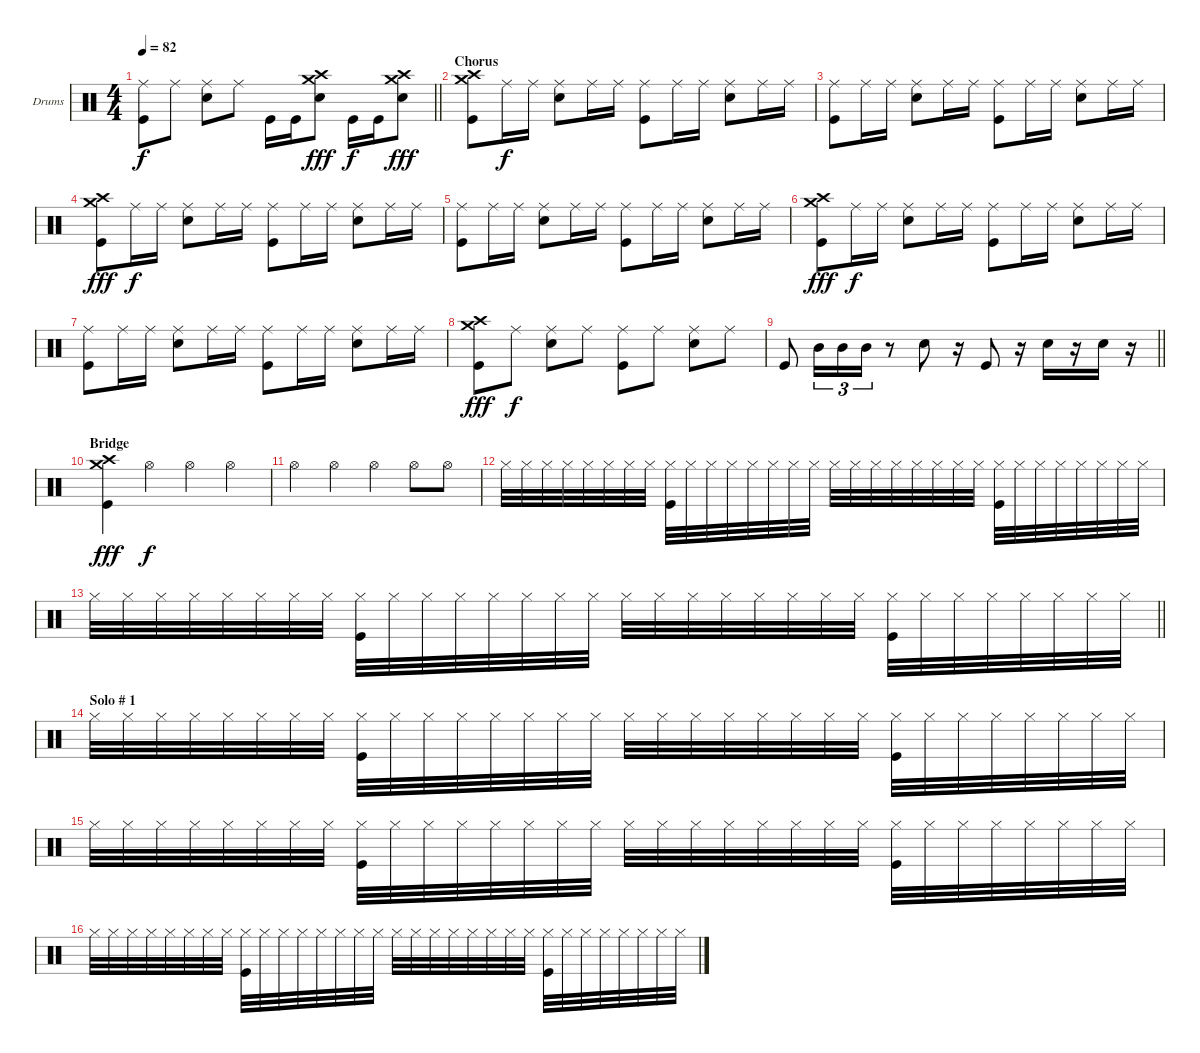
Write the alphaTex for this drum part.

\bracketExtendMode groupsimilarinstruments
\firstSystemTrackNameOrientation horizontal
\otherSystemsTrackNameOrientation horizontal
\track ("Drumkit" "Drums") {instrument percussion}
\staff {score}
\articulation defaults
\ts (4 4)
\tempo 82
\clef neutral
\barLineRight lightlight
\ks c
("Kick (hit)" "Ride (middle)").8{dy f} "Ride (middle)".8 ("Snare (hit) 2" "Ride (middle)").8 "Ride (middle)".8 "Kick (hit)".16 "Kick (hit)".16 ("Snare (hit) 2" "Crash medium (hit)" "Crash high (hit)").8{dy fff} "Kick (hit)".16{dy f} "Kick (hit)".16 ("Snare (hit) 2" "Crash medium (hit)" "Crash high (hit)").8{dy fff} |
\section ("" "Chorus")
("Kick (hit)" "Crash medium (hit)" "Crash high (hit)").8 "Ride (middle)".16{dy f} "Ride (middle)".16 ("Snare (hit) 2" "Ride (middle)").8 "Ride (middle)".16 "Ride (middle)".16 ("Kick (hit)" "Ride (middle)").8 "Ride (middle)".16 "Ride (middle)".16 ("Snare (hit) 2" "Ride (middle)").8 "Ride (middle)".16 "Ride (middle)".16 |
("Kick (hit)" "Ride (middle)").8 "Ride (middle)".16 "Ride (middle)".16 ("Snare (hit) 2" "Ride (middle)").8 "Ride (middle)".16 "Ride (middle)".16 ("Kick (hit)" "Ride (middle)").8 "Ride (middle)".16 "Ride (middle)".16 ("Snare (hit) 2" "Ride (middle)").8 "Ride (middle)".16 "Ride (middle)".16 |
("Kick (hit)" "Crash medium (hit)" "Crash high (hit)").8{dy fff} "Ride (middle)".16{dy f} "Ride (middle)".16 ("Snare (hit) 2" "Ride (middle)").8 "Ride (middle)".16 "Ride (middle)".16 ("Kick (hit)" "Ride (middle)").8 "Ride (middle)".16 "Ride (middle)".16 ("Snare (hit) 2" "Ride (middle)").8 "Ride (middle)".16 "Ride (middle)".16 |
("Kick (hit)" "Ride (middle)").8 "Ride (middle)".16 "Ride (middle)".16 ("Snare (hit) 2" "Ride (middle)").8 "Ride (middle)".16 "Ride (middle)".16 ("Kick (hit)" "Ride (middle)").8 "Ride (middle)".16 "Ride (middle)".16 ("Snare (hit) 2" "Ride (middle)").8 "Ride (middle)".16 "Ride (middle)".16 |
("Kick (hit)" "Crash medium (hit)" "Crash high (hit)").8{dy fff} "Ride (middle)".16{dy f} "Ride (middle)".16 ("Snare (hit) 2" "Ride (middle)").8 "Ride (middle)".16 "Ride (middle)".16 ("Kick (hit)" "Ride (middle)").8 "Ride (middle)".16 "Ride (middle)".16 ("Snare (hit) 2" "Ride (middle)").8 "Ride (middle)".16 "Ride (middle)".16 |
("Kick (hit)" "Ride (middle)").8 "Ride (middle)".16 "Ride (middle)".16 ("Snare (hit) 2" "Ride (middle)").8 "Ride (middle)".16 "Ride (middle)".16 ("Kick (hit)" "Ride (middle)").8 "Ride (middle)".16 "Ride (middle)".16 ("Snare (hit) 2" "Ride (middle)").8 "Ride (middle)".16 "Ride (middle)".16 |
("Kick (hit)" "Crash medium (hit)" "Crash high (hit)").8{dy fff} "Ride (middle)".8{dy f} ("Snare (hit) 2" "Ride (middle)").8 "Ride (middle)".8 ("Kick (hit)" "Ride (middle)").8 "Ride (middle)".8 ("Snare (hit) 2" "Ride (middle)").8 "Ride (middle)".8 |
\barLineRight lightlight "Kick (hit)".8 "Mid Tom (hit)".16{tu (3 2)} "Mid Tom (hit)".16{tu (3 2)} "Mid Tom (hit)".16{tu (3 2)}
r.8 "Snare (hit) 2".8 r.16 "Kick (hit)".8 r.16 "Snare (hit) 2".16 r.16 "Snare (hit) 2".16 r.16 |
\section ("" "Bridge")
("Kick (hit)" "Crash medium (hit)" "Crash high (hit)").4{dy fff} "Hi-Hat (open)".4{dy f} "Hi-Hat (open)".4 "Hi-Hat (open)".4 |
"Hi-Hat (open)".4 "Hi-Hat (open)".4 "Hi-Hat (open)".4 "Hi-Hat (open)".8 "Hi-Hat (open)".8 |
"Hi-Hat (closed)".32 "Hi-Hat (closed)".32 "Hi-Hat (closed)".32 "Hi-Hat (closed)".32 "Hi-Hat (closed)".32 "Hi-Hat (closed)".32 "Hi-Hat (closed)".32 "Hi-Hat (closed)".32 ("Hi-Hat (closed)" "Kick (hit)").32 "Hi-Hat (closed)".32 "Hi-Hat (closed)".32 "Hi-Hat (closed)".32 "Hi-Hat (closed)".32 "Hi-Hat (closed)".32 "Hi-Hat (closed)".32 "Hi-Hat (closed)".32 "Hi-Hat (closed)".32 "Hi-Hat (closed)".32 "Hi-Hat (closed)".32 "Hi-Hat (closed)".32 "Hi-Hat (closed)".32 "Hi-Hat (closed)".32 "Hi-Hat (closed)".32 "Hi-Hat (closed)".32 ("Hi-Hat (closed)" "Kick (hit)").32 "Hi-Hat (closed)".32 "Hi-Hat (closed)".32 "Hi-Hat (closed)".32 "Hi-Hat (closed)".32 "Hi-Hat (closed)".32 "Hi-Hat (closed)".32 "Hi-Hat (closed)".32 |
\barLineRight lightlight "Hi-Hat (closed)".32 "Hi-Hat (closed)".32 "Hi-Hat (closed)".32 "Hi-Hat (closed)".32 "Hi-Hat (closed)".32 "Hi-Hat (closed)".32 "Hi-Hat (closed)".32 "Hi-Hat (closed)".32
("Hi-Hat (closed)" "Kick (hit)").32 "Hi-Hat (closed)".32 "Hi-Hat (closed)".32 "Hi-Hat (closed)".32 "Hi-Hat (closed)".32 "Hi-Hat (closed)".32 "Hi-Hat (closed)".32 "Hi-Hat (closed)".32 "Hi-Hat (closed)".32 "Hi-Hat (closed)".32 "Hi-Hat (closed)".32 "Hi-Hat (closed)".32 "Hi-Hat (closed)".32 "Hi-Hat (closed)".32 "Hi-Hat (closed)".32 "Hi-Hat (closed)".32 ("Hi-Hat (closed)" "Kick (hit)").32 "Hi-Hat (closed)".32 "Hi-Hat (closed)".32 "Hi-Hat (closed)".32 "Hi-Hat (closed)".32 "Hi-Hat (closed)".32 "Hi-Hat (closed)".32 "Hi-Hat (closed)".32 |
\section ("" "Solo # 1")
"Hi-Hat (closed)".32 "Hi-Hat (closed)".32 "Hi-Hat (closed)".32 "Hi-Hat (closed)".32 "Hi-Hat (closed)".32 "Hi-Hat (closed)".32 "Hi-Hat (closed)".32 "Hi-Hat (closed)".32 ("Hi-Hat (closed)" "Kick (hit)").32 "Hi-Hat (closed)".32 "Hi-Hat (closed)".32 "Hi-Hat (closed)".32 "Hi-Hat (closed)".32 "Hi-Hat (closed)".32 "Hi-Hat (closed)".32 "Hi-Hat (closed)".32 "Hi-Hat (closed)".32 "Hi-Hat (closed)".32 "Hi-Hat (closed)".32 "Hi-Hat (closed)".32 "Hi-Hat (closed)".32 "Hi-Hat (closed)".32 "Hi-Hat (closed)".32 "Hi-Hat (closed)".32 ("Hi-Hat (closed)" "Kick (hit)").32 "Hi-Hat (closed)".32 "Hi-Hat (closed)".32 "Hi-Hat (closed)".32 "Hi-Hat (closed)".32 "Hi-Hat (closed)".32 "Hi-Hat (closed)".32 "Hi-Hat (closed)".32 |
"Hi-Hat (closed)".32 "Hi-Hat (closed)".32 "Hi-Hat (closed)".32 "Hi-Hat (closed)".32 "Hi-Hat (closed)".32 "Hi-Hat (closed)".32 "Hi-Hat (closed)".32 "Hi-Hat (closed)".32 ("Hi-Hat (closed)" "Kick (hit)").32 "Hi-Hat (closed)".32 "Hi-Hat (closed)".32 "Hi-Hat (closed)".32 "Hi-Hat (closed)".32 "Hi-Hat (closed)".32 "Hi-Hat (closed)".32 "Hi-Hat (closed)".32 "Hi-Hat (closed)".32 "Hi-Hat (closed)".32 "Hi-Hat (closed)".32 "Hi-Hat (closed)".32 "Hi-Hat (closed)".32 "Hi-Hat (closed)".32 "Hi-Hat (closed)".32 "Hi-Hat (closed)".32 ("Hi-Hat (closed)" "Kick (hit)").32 "Hi-Hat (closed)".32 "Hi-Hat (closed)".32 "Hi-Hat (closed)".32 "Hi-Hat (closed)".32 "Hi-Hat (closed)".32 "Hi-Hat (closed)".32 "Hi-Hat (closed)".32 |
"Hi-Hat (closed)".32 "Hi-Hat (closed)".32 "Hi-Hat (closed)".32 "Hi-Hat (closed)".32 "Hi-Hat (closed)".32 "Hi-Hat (closed)".32 "Hi-Hat (closed)".32 "Hi-Hat (closed)".32 ("Hi-Hat (closed)" "Kick (hit)").32 "Hi-Hat (closed)".32 "Hi-Hat (closed)".32 "Hi-Hat (closed)".32 "Hi-Hat (closed)".32 "Hi-Hat (closed)".32 "Hi-Hat (closed)".32 "Hi-Hat (closed)".32 "Hi-Hat (closed)".32 "Hi-Hat (closed)".32 "Hi-Hat (closed)".32 "Hi-Hat (closed)".32 "Hi-Hat (closed)".32 "Hi-Hat (closed)".32 "Hi-Hat (closed)".32 "Hi-Hat (closed)".32 ("Hi-Hat (closed)" "Kick (hit)").32 "Hi-Hat (closed)".32 "Hi-Hat (closed)".32 "Hi-Hat (closed)".32 "Hi-Hat (closed)".32 "Hi-Hat (closed)".32 "Hi-Hat (closed)".32 "Hi-Hat (closed)".32
